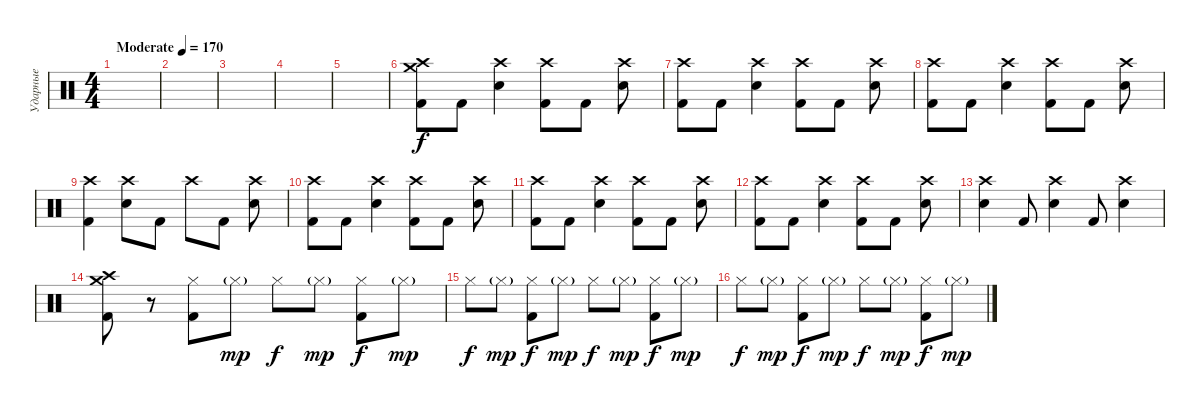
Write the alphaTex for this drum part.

\track ("Ударные" "Ударные") {instrument percussion}
\staff {score}
\articulation defaults
\ts (4 4)
\tempo (170 "Moderate")
\clef neutral
\ks c
|
|
|
|
|
("Crash medium (hit)" "Crash high (hit)" "Kick (hit) 2").8 "Kick (hit) 2".8 ("Crash high (hit)" "Snare (hit) 2").4 ("Crash high (hit)" "Kick (hit) 2").8 "Kick (hit) 2".8 ("Crash high (hit)" "Snare (hit) 2").8 |
("Crash high (hit)" "Kick (hit) 2").8 "Kick (hit) 2".8 ("Crash high (hit)" "Snare (hit) 2").4 ("Crash high (hit)" "Kick (hit) 2").8 "Kick (hit) 2".8 ("Crash high (hit)" "Snare (hit) 2").8 |
("Crash high (hit)" "Kick (hit) 2").8 "Kick (hit) 2".8 ("Crash high (hit)" "Snare (hit) 2").4 ("Crash high (hit)" "Kick (hit) 2").8 "Kick (hit) 2".8 ("Crash high (hit)" "Snare (hit) 2").8 |
("Crash high (hit)" "Kick (hit) 2").4 ("Crash high (hit)" "Snare (hit) 2").8 "Kick (hit) 2".8 "Crash high (hit)".8 "Kick (hit) 2".8 ("Crash high (hit)" "Snare (hit) 2").8 |
("Crash high (hit)" "Kick (hit) 2").8 "Kick (hit) 2".8 ("Crash high (hit)" "Snare (hit) 2").4 ("Crash high (hit)" "Kick (hit) 2").8 "Kick (hit) 2".8 ("Crash high (hit)" "Snare (hit) 2").8 |
("Crash high (hit)" "Kick (hit) 2").8 "Kick (hit) 2".8 ("Crash high (hit)" "Snare (hit) 2").4 ("Crash high (hit)" "Kick (hit) 2").8 "Kick (hit) 2".8 ("Crash high (hit)" "Snare (hit) 2").8 |
("Crash high (hit)" "Kick (hit) 2").8 "Kick (hit) 2".8 ("Crash high (hit)" "Snare (hit) 2").4 ("Crash high (hit)" "Kick (hit) 2").8 "Kick (hit) 2".8 ("Crash high (hit)" "Snare (hit) 2").8 |
("Crash high (hit)" "Snare (hit) 2").4 "Kick (hit) 2".8 ("Crash high (hit)" "Snare (hit) 2").4 "Kick (hit) 2".8 ("Crash high (hit)" "Snare (hit) 2").4 |
("Crash high (hit)" "Crash medium (hit)" "Kick (hit) 2").8 r.8 ("Hi-Hat (closed)" "Kick (hit) 2").8 "Hi-Hat (closed)"{g}.8{dy mp} "Hi-Hat (closed)".8{dy f} "Hi-Hat (closed)"{g}.8{dy mp} ("Hi-Hat (closed)" "Kick (hit) 2").8{dy f} "Hi-Hat (closed)"{g}.8{dy mp} |
"Hi-Hat (closed)".8{dy f} "Hi-Hat (closed)"{g}.8{dy mp} ("Hi-Hat (closed)" "Kick (hit) 2").8{dy f} "Hi-Hat (closed)"{g}.8{dy mp} "Hi-Hat (closed)".8{dy f} "Hi-Hat (closed)"{g}.8{dy mp} ("Hi-Hat (closed)" "Kick (hit) 2").8{dy f} "Hi-Hat (closed)"{g}.8{dy mp} |
"Hi-Hat (closed)".8{dy f} "Hi-Hat (closed)"{g}.8{dy mp} ("Hi-Hat (closed)" "Kick (hit) 2").8{dy f} "Hi-Hat (closed)"{g}.8{dy mp} "Hi-Hat (closed)".8{dy f} "Hi-Hat (closed)"{g}.8{dy mp} ("Hi-Hat (closed)" "Kick (hit) 2").8{dy f} "Hi-Hat (closed)"{g}.8{dy mp}
